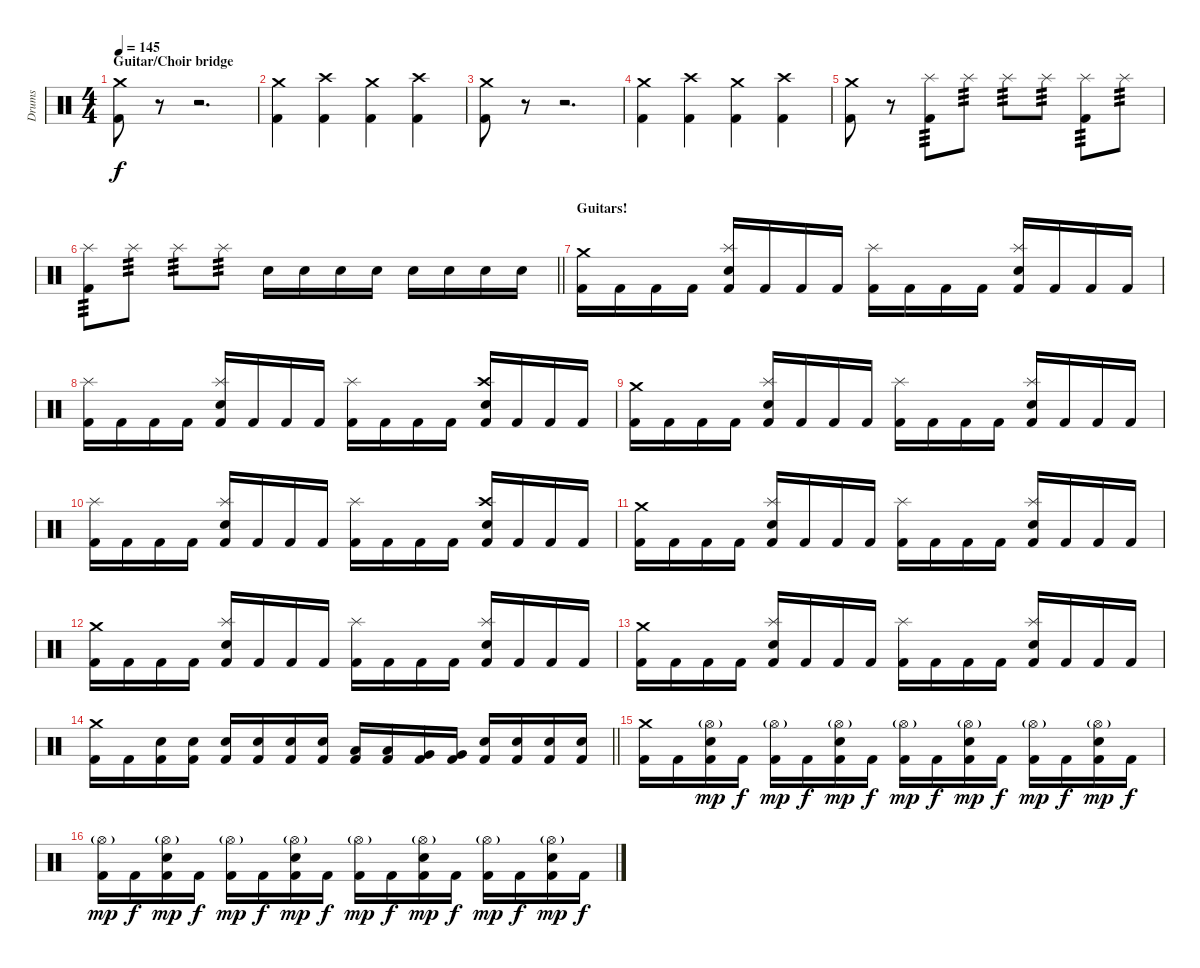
\track ("Drums" "Drums") {instrument percussion}
\staff {score}
\articulation defaults
\ts (4 4)
\section ("" "Guitar/Choir bridge")
\tempo 145
\clef neutral
\ks c
("Kick (hit) 2" "Crash medium (hit)").8{dy f} r.8 r.2{d} |
("Kick (hit) 2" "Crash medium (hit)").4 ("Kick (hit) 2" "Crash high (hit)").4 ("Kick (hit) 2" "Crash medium (hit)").4 ("Kick (hit) 2" "Crash high (hit)").4 |
("Kick (hit) 2" "Crash medium (hit)").8 r.8 r.2{d} |
("Kick (hit) 2" "Crash medium (hit)").4 ("Kick (hit) 2" "Crash high (hit)").4 ("Kick (hit) 2" "Crash medium (hit)").4 ("Kick (hit) 2" "Crash high (hit)").4 |
("Kick (hit) 2" "Crash medium (hit)").8 r.8 ("Kick (hit) 2" "Splash (hit)").8{tp 3} "Splash (hit)".8{tp 3} "Splash (hit)".8{tp 3} "Splash (hit)".8{tp 3} ("Kick (hit) 2" "Splash (hit)").8{tp 3} "Splash (hit)".8{tp 3} |
\barLineRight lightlight
("Kick (hit) 2" "Splash (hit)").8{tp 3} "Splash (hit)".8{tp 3} "Splash (hit)".8{tp 3} "Splash (hit)".8{tp 3} "Snare (hit) 2".16 "Snare (hit) 2".16 "Snare (hit) 2".16 "Snare (hit) 2".16 "Snare (hit) 2".16 "Snare (hit) 2".16 "Snare (hit) 2".16 "Snare (hit) 2".16 |
\section ("" "Guitars!")
("Kick (hit) 2" "Crash medium (hit)").16 "Kick (hit) 2".16 "Kick (hit) 2".16 "Kick (hit) 2".16 ("Kick (hit) 2" "Snare (hit) 2" "Splash (hit)").16 "Kick (hit) 2".16 "Kick (hit) 2".16 "Kick (hit) 2".16 ("Kick (hit) 2" "Splash (hit)").16 "Kick (hit) 2".16 "Kick (hit) 2".16 "Kick (hit) 2".16 ("Kick (hit) 2" "Snare (hit) 2" "Splash (hit)").16 "Kick (hit) 2".16 "Kick (hit) 2".16 "Kick (hit) 2".16 |
("Kick (hit) 2" "Splash (hit)").16 "Kick (hit) 2".16 "Kick (hit) 2".16 "Kick (hit) 2".16 ("Kick (hit) 2" "Snare (hit) 2" "Splash (hit)").16 "Kick (hit) 2".16 "Kick (hit) 2".16 "Kick (hit) 2".16 ("Kick (hit) 2" "Splash (hit)").16 "Kick (hit) 2".16 "Kick (hit) 2".16 "Kick (hit) 2".16 ("Kick (hit) 2" "Snare (hit) 2" "Crash high (hit)").16 "Kick (hit) 2".16 "Kick (hit) 2".16 "Kick (hit) 2".16 |
("Kick (hit) 2" "Crash medium (hit)").16 "Kick (hit) 2".16 "Kick (hit) 2".16 "Kick (hit) 2".16 ("Kick (hit) 2" "Snare (hit) 2" "Splash (hit)").16 "Kick (hit) 2".16 "Kick (hit) 2".16 "Kick (hit) 2".16 ("Kick (hit) 2" "Splash (hit)").16 "Kick (hit) 2".16 "Kick (hit) 2".16 "Kick (hit) 2".16 ("Kick (hit) 2" "Snare (hit) 2" "Splash (hit)").16 "Kick (hit) 2".16 "Kick (hit) 2".16 "Kick (hit) 2".16 |
("Kick (hit) 2" "Splash (hit)").16 "Kick (hit) 2".16 "Kick (hit) 2".16 "Kick (hit) 2".16 ("Kick (hit) 2" "Snare (hit) 2" "Splash (hit)").16 "Kick (hit) 2".16 "Kick (hit) 2".16 "Kick (hit) 2".16 ("Kick (hit) 2" "Splash (hit)").16 "Kick (hit) 2".16 "Kick (hit) 2".16 "Kick (hit) 2".16 ("Kick (hit) 2" "Snare (hit) 2" "Crash high (hit)").16 "Kick (hit) 2".16 "Kick (hit) 2".16 "Kick (hit) 2".16 |
("Kick (hit) 2" "Crash medium (hit)").16 "Kick (hit) 2".16 "Kick (hit) 2".16 "Kick (hit) 2".16 ("Kick (hit) 2" "Snare (hit) 2" "Splash (hit)").16 "Kick (hit) 2".16 "Kick (hit) 2".16 "Kick (hit) 2".16 ("Kick (hit) 2" "Splash (hit)").16 "Kick (hit) 2".16 "Kick (hit) 2".16 "Kick (hit) 2".16 ("Kick (hit) 2" "Snare (hit) 2" "Splash (hit)").16 "Kick (hit) 2".16 "Kick (hit) 2".16 "Kick (hit) 2".16 |
("Kick (hit) 2" "Crash medium (hit)").16 "Kick (hit) 2".16 "Kick (hit) 2".16 "Kick (hit) 2".16 ("Kick (hit) 2" "Snare (hit) 2" "Splash (hit)").16 "Kick (hit) 2".16 "Kick (hit) 2".16 "Kick (hit) 2".16 ("Kick (hit) 2" "Splash (hit)").16 "Kick (hit) 2".16 "Kick (hit) 2".16 "Kick (hit) 2".16 ("Kick (hit) 2" "Snare (hit) 2" "Splash (hit)").16 "Kick (hit) 2".16 "Kick (hit) 2".16 "Kick (hit) 2".16 |
("Kick (hit) 2" "Crash medium (hit)").16 "Kick (hit) 2".16 "Kick (hit) 2".16 "Kick (hit) 2".16 ("Kick (hit) 2" "Snare (hit) 2" "Splash (hit)").16 "Kick (hit) 2".16 "Kick (hit) 2".16 "Kick (hit) 2".16 ("Kick (hit) 2" "Splash (hit)").16 "Kick (hit) 2".16 "Kick (hit) 2".16 "Kick (hit) 2".16 ("Kick (hit) 2" "Snare (hit) 2" "Splash (hit)").16 "Kick (hit) 2".16 "Kick (hit) 2".16 "Kick (hit) 2".16 |
\barLineRight lightlight
("Kick (hit) 2" "Crash medium (hit)").16 "Kick (hit) 2".16 ("Kick (hit) 2" "Snare (hit) 2").16 ("Kick (hit) 2" "Snare (hit) 2").16 ("Kick (hit) 2" "Snare (hit) 2").16 ("Kick (hit) 2" "Snare (hit) 2").16 ("Kick (hit) 2" "Snare (hit) 2").16 ("Kick (hit) 2" "Snare (hit) 2").16 ("Kick (hit) 2" "Low Tom (hit)").16 ("Kick (hit) 2" "Low Tom (hit)").16 ("Kick (hit) 2" "Very Low Tom (hit)").16 ("Kick (hit) 2" "Very Low Tom (hit)").16 ("Kick (hit) 2" "Snare (hit) 2").16 ("Kick (hit) 2" "Snare (hit) 2").16 ("Kick (hit) 2" "Snare (hit) 2").16 ("Kick (hit) 2" "Snare (hit) 2").16 |
\section ("" "")
("Kick (hit) 2" "Crash medium (hit)").16 "Kick (hit) 2".16 ("Kick (hit) 2" "Snare (hit) 2" "Hi-Hat (open)"{g}).16{dy mp} "Kick (hit) 2".16{dy f} ("Kick (hit) 2" "Hi-Hat (open)"{g}).16{dy mp} "Kick (hit) 2".16{dy f} ("Kick (hit) 2" "Snare (hit) 2" "Hi-Hat (open)"{g}).16{dy mp} "Kick (hit) 2".16{dy f} ("Kick (hit) 2" "Hi-Hat (open)"{g}).16{dy mp} "Kick (hit) 2".16{dy f} ("Kick (hit) 2" "Snare (hit) 2" "Hi-Hat (open)"{g}).16{dy mp} "Kick (hit) 2".16{dy f} ("Kick (hit) 2" "Hi-Hat (open)"{g}).16{dy mp} "Kick (hit) 2".16{dy f} ("Kick (hit) 2" "Snare (hit) 2" "Hi-Hat (open)"{g}).16{dy mp} "Kick (hit) 2".16{dy f} |
("Kick (hit) 2" "Hi-Hat (open)"{g}).16{dy mp} "Kick (hit) 2".16{dy f} ("Kick (hit) 2" "Snare (hit) 2" "Hi-Hat (open)"{g}).16{dy mp} "Kick (hit) 2".16{dy f} ("Kick (hit) 2" "Hi-Hat (open)"{g}).16{dy mp} "Kick (hit) 2".16{dy f} ("Kick (hit) 2" "Snare (hit) 2" "Hi-Hat (open)"{g}).16{dy mp} "Kick (hit) 2".16{dy f} ("Kick (hit) 2" "Hi-Hat (open)"{g}).16{dy mp} "Kick (hit) 2".16{dy f} ("Kick (hit) 2" "Snare (hit) 2" "Hi-Hat (open)"{g}).16{dy mp} "Kick (hit) 2".16{dy f} ("Kick (hit) 2" "Hi-Hat (open)"{g}).16{dy mp} "Kick (hit) 2".16{dy f} ("Kick (hit) 2" "Snare (hit) 2" "Hi-Hat (open)"{g}).16{dy mp} "Kick (hit) 2".16{dy f}
